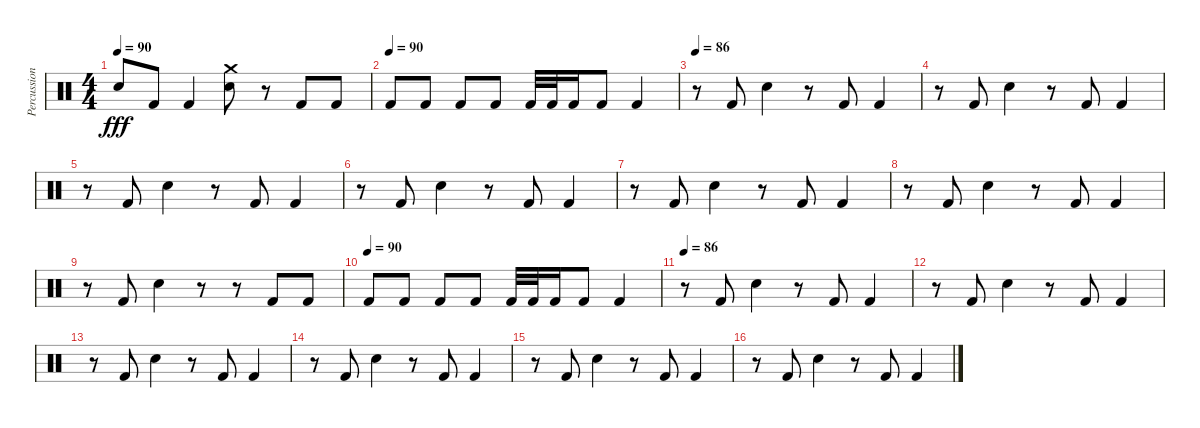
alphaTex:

\track ("Percussion" "Percussion") {instrument percussion}
\staff {score}
\articulation defaults
\ts (4 4)
\tempo 90
\clef neutral
\ks c "Electric Snare (hit)".8{dy fff} "Kick (hit) 2".8 "Kick (hit) 2".4
("Electric Snare (hit)" "Crash medium (hit)").8 r.8 "Kick (hit) 2".8 "Kick (hit) 2".8 |
\tempo (90)
"Kick (hit) 2".8 "Kick (hit) 2".8 "Kick (hit) 2".8 "Kick (hit) 2".8 "Kick (hit) 2".32 "Kick (hit) 2".32 "Kick (hit) 2".16 "Kick (hit) 2".8 "Kick (hit) 2".4 |
\tempo 86
r.8 "Kick (hit) 2".8 "Electric Snare (hit)".4 r.8 "Kick (hit) 2".8 "Kick (hit) 2".4 |
r.8 "Kick (hit) 2".8 "Electric Snare (hit)".4 r.8 "Kick (hit) 2".8 "Kick (hit) 2".4 |
r.8 "Kick (hit) 2".8 "Electric Snare (hit)".4 r.8 "Kick (hit) 2".8 "Kick (hit) 2".4 |
r.8 "Kick (hit) 2".8 "Electric Snare (hit)".4 r.8 "Kick (hit) 2".8 "Kick (hit) 2".4 |
r.8 "Kick (hit) 2".8 "Electric Snare (hit)".4 r.8 "Kick (hit) 2".8 "Kick (hit) 2".4 |
r.8 "Kick (hit) 2".8 "Electric Snare (hit)".4 r.8 "Kick (hit) 2".8 "Kick (hit) 2".4 |
r.8 "Kick (hit) 2".8 "Electric Snare (hit)".4 r.8 r.8 "Kick (hit) 2".8 "Kick (hit) 2".8 |
\tempo (90)
"Kick (hit) 2".8 "Kick (hit) 2".8 "Kick (hit) 2".8 "Kick (hit) 2".8 "Kick (hit) 2".32 "Kick (hit) 2".32 "Kick (hit) 2".16 "Kick (hit) 2".8 "Kick (hit) 2".4 |
\tempo 86
r.8 "Kick (hit) 2".8 "Electric Snare (hit)".4 r.8 "Kick (hit) 2".8 "Kick (hit) 2".4 |
r.8 "Kick (hit) 2".8 "Electric Snare (hit)".4 r.8 "Kick (hit) 2".8 "Kick (hit) 2".4 |
r.8 "Kick (hit) 2".8 "Electric Snare (hit)".4 r.8 "Kick (hit) 2".8 "Kick (hit) 2".4 |
r.8 "Kick (hit) 2".8 "Electric Snare (hit)".4 r.8 "Kick (hit) 2".8 "Kick (hit) 2".4 |
r.8 "Kick (hit) 2".8 "Electric Snare (hit)".4 r.8 "Kick (hit) 2".8 "Kick (hit) 2".4 |
r.8 "Kick (hit) 2".8 "Electric Snare (hit)".4 r.8 "Kick (hit) 2".8 "Kick (hit) 2".4
